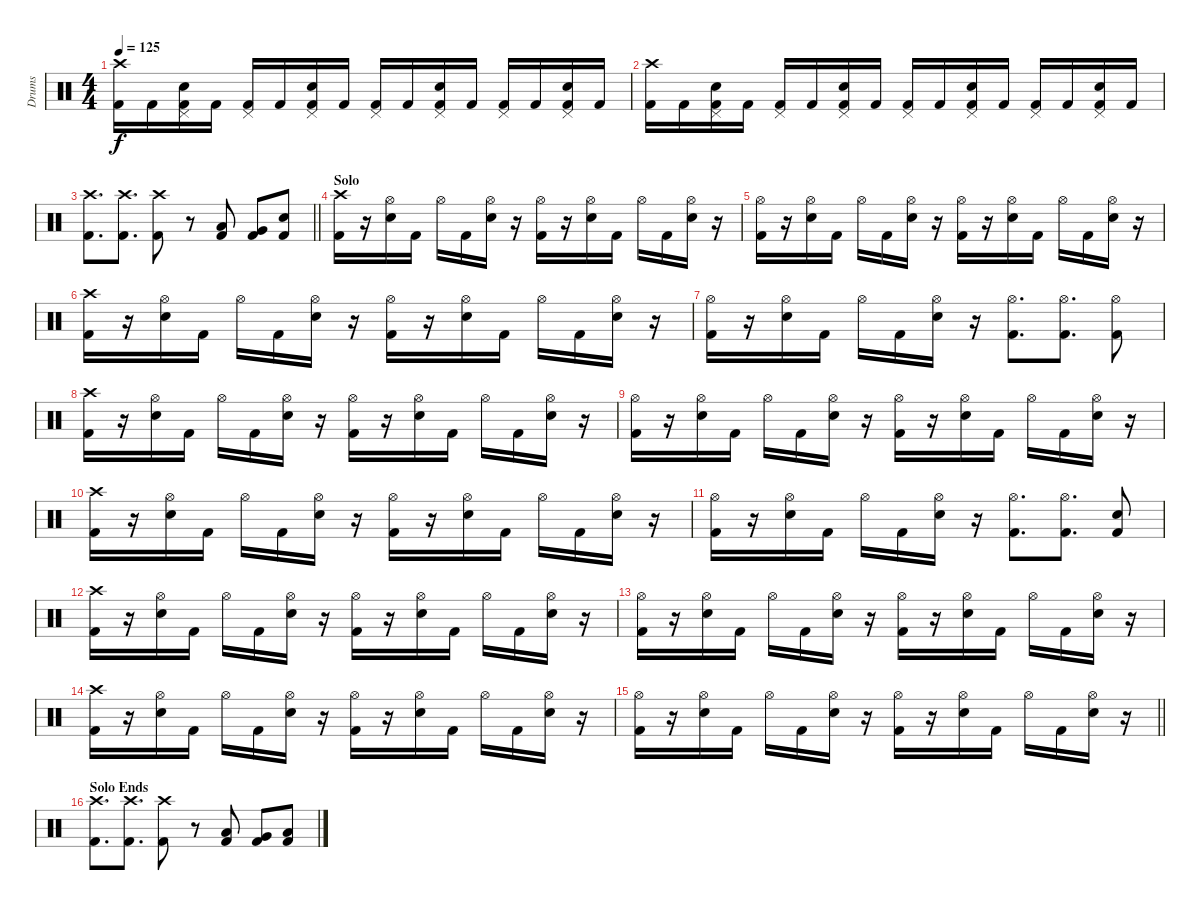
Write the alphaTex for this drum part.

\track ("Drums" "Drums") {instrument percussion}
\staff {score}
\articulation defaults
\ts (4 4)
\tempo 125
\clef neutral
\ks c
("Crash high (hit)" "Kick (hit) 2").16{dy f} "Kick (hit) 2".16 ("Pedal Hi-Hat (hit)" "Snare (hit) 2" "Kick (hit) 2").16 "Kick (hit) 2".16 ("Pedal Hi-Hat (hit)" "Kick (hit) 2").16 "Kick (hit) 2".16 ("Pedal Hi-Hat (hit)" "Snare (hit) 2" "Kick (hit) 2").16 "Kick (hit) 2".16 ("Pedal Hi-Hat (hit)" "Kick (hit) 2").16 "Kick (hit) 2".16 ("Pedal Hi-Hat (hit)" "Snare (hit) 2" "Kick (hit) 2").16 "Kick (hit) 2".16 ("Pedal Hi-Hat (hit)" "Kick (hit) 2").16 "Kick (hit) 2".16 ("Pedal Hi-Hat (hit)" "Snare (hit) 2" "Kick (hit) 2").16 "Kick (hit) 2".16 |
("Crash high (hit)" "Kick (hit) 2").16 "Kick (hit) 2".16 ("Pedal Hi-Hat (hit)" "Snare (hit) 2" "Kick (hit) 2").16 "Kick (hit) 2".16 ("Pedal Hi-Hat (hit)" "Kick (hit) 2").16 "Kick (hit) 2".16 ("Pedal Hi-Hat (hit)" "Snare (hit) 2" "Kick (hit) 2").16 "Kick (hit) 2".16 ("Pedal Hi-Hat (hit)" "Kick (hit) 2").16 "Kick (hit) 2".16 ("Pedal Hi-Hat (hit)" "Snare (hit) 2" "Kick (hit) 2").16 "Kick (hit) 2".16 ("Pedal Hi-Hat (hit)" "Kick (hit) 2").16 "Kick (hit) 2".16 ("Pedal Hi-Hat (hit)" "Snare (hit) 2" "Kick (hit) 2").16 "Kick (hit) 2".16 |
\barLineRight lightlight
("Crash high (hit)" "Kick (hit) 2").8{d} ("Crash high (hit)" "Kick (hit) 2").8{d} ("Crash high (hit)" "Kick (hit) 2").8 r.8 ("Low Tom (hit)" "Kick (hit) 2").8 ("Very Low Tom (hit)" "Kick (hit) 2").8 ("Snare (hit) 2" "Kick (hit) 2").8 |
\section ("" "Solo")
("Crash high (hit)" "Kick (hit) 2").16 r.16 ("Hi-Hat (open)" "Snare (hit) 2").16 "Kick (hit) 2".16 "Hi-Hat (open)".16 "Kick (hit) 2".16 ("Hi-Hat (open)" "Snare (hit) 2").16 r.16 ("Hi-Hat (open)" "Kick (hit) 2").16 r.16 ("Hi-Hat (open)" "Snare (hit) 2").16 "Kick (hit) 2".16 "Hi-Hat (open)".16 "Kick (hit) 2".16 ("Hi-Hat (open)" "Snare (hit) 2").16 r.16 |
("Hi-Hat (open)" "Kick (hit) 2").16 r.16 ("Hi-Hat (open)" "Snare (hit) 2").16 "Kick (hit) 2".16 "Hi-Hat (open)".16 "Kick (hit) 2".16 ("Hi-Hat (open)" "Snare (hit) 2").16 r.16 ("Hi-Hat (open)" "Kick (hit) 2").16 r.16 ("Hi-Hat (open)" "Snare (hit) 2").16 "Kick (hit) 2".16 "Hi-Hat (open)".16 "Kick (hit) 2".16 ("Hi-Hat (open)" "Snare (hit) 2").16 r.16 |
("Crash high (hit)" "Kick (hit) 2").16 r.16 ("Hi-Hat (open)" "Snare (hit) 2").16 "Kick (hit) 2".16 "Hi-Hat (open)".16 "Kick (hit) 2".16 ("Hi-Hat (open)" "Snare (hit) 2").16 r.16 ("Hi-Hat (open)" "Kick (hit) 2").16 r.16 ("Hi-Hat (open)" "Snare (hit) 2").16 "Kick (hit) 2".16 "Hi-Hat (open)".16 "Kick (hit) 2".16 ("Hi-Hat (open)" "Snare (hit) 2").16 r.16 |
("Hi-Hat (open)" "Kick (hit) 2").16 r.16 ("Hi-Hat (open)" "Snare (hit) 2").16 "Kick (hit) 2".16 "Hi-Hat (open)".16 "Kick (hit) 2".16 ("Hi-Hat (open)" "Snare (hit) 2").16 r.16 ("Hi-Hat (open)" "Kick (hit) 2").8{d} ("Hi-Hat (open)" "Kick (hit) 2").8{d} ("Hi-Hat (open)" "Kick (hit) 2").8 |
("Crash high (hit)" "Kick (hit) 2").16 r.16 ("Hi-Hat (open)" "Snare (hit) 2").16 "Kick (hit) 2".16 "Hi-Hat (open)".16 "Kick (hit) 2".16 ("Hi-Hat (open)" "Snare (hit) 2").16 r.16 ("Hi-Hat (open)" "Kick (hit) 2").16 r.16 ("Hi-Hat (open)" "Snare (hit) 2").16 "Kick (hit) 2".16 "Hi-Hat (open)".16 "Kick (hit) 2".16 ("Hi-Hat (open)" "Snare (hit) 2").16 r.16 |
("Hi-Hat (open)" "Kick (hit) 2").16 r.16 ("Hi-Hat (open)" "Snare (hit) 2").16 "Kick (hit) 2".16 "Hi-Hat (open)".16 "Kick (hit) 2".16 ("Hi-Hat (open)" "Snare (hit) 2").16 r.16 ("Hi-Hat (open)" "Kick (hit) 2").16 r.16 ("Hi-Hat (open)" "Snare (hit) 2").16 "Kick (hit) 2".16 "Hi-Hat (open)".16 "Kick (hit) 2".16 ("Hi-Hat (open)" "Snare (hit) 2").16 r.16 |
("Crash high (hit)" "Kick (hit) 2").16 r.16 ("Hi-Hat (open)" "Snare (hit) 2").16 "Kick (hit) 2".16 "Hi-Hat (open)".16 "Kick (hit) 2".16 ("Hi-Hat (open)" "Snare (hit) 2").16 r.16 ("Hi-Hat (open)" "Kick (hit) 2").16 r.16 ("Hi-Hat (open)" "Snare (hit) 2").16 "Kick (hit) 2".16 "Hi-Hat (open)".16 "Kick (hit) 2".16 ("Hi-Hat (open)" "Snare (hit) 2").16 r.16 |
("Hi-Hat (open)" "Kick (hit) 2").16 r.16 ("Hi-Hat (open)" "Snare (hit) 2").16 "Kick (hit) 2".16 "Hi-Hat (open)".16 "Kick (hit) 2".16 ("Hi-Hat (open)" "Snare (hit) 2").16 r.16 ("Hi-Hat (open)" "Kick (hit) 2").8{d} ("Hi-Hat (open)" "Kick (hit) 2").8{d} ("Snare (hit) 2" "Kick (hit) 2").8 |
("Crash high (hit)" "Kick (hit) 2").16 r.16 ("Hi-Hat (open)" "Snare (hit) 2").16 "Kick (hit) 2".16 "Hi-Hat (open)".16 "Kick (hit) 2".16 ("Hi-Hat (open)" "Snare (hit) 2").16 r.16 ("Hi-Hat (open)" "Kick (hit) 2").16 r.16 ("Hi-Hat (open)" "Snare (hit) 2").16 "Kick (hit) 2".16 "Hi-Hat (open)".16 "Kick (hit) 2".16 ("Hi-Hat (open)" "Snare (hit) 2").16 r.16 |
("Hi-Hat (open)" "Kick (hit) 2").16 r.16 ("Hi-Hat (open)" "Snare (hit) 2").16 "Kick (hit) 2".16 "Hi-Hat (open)".16 "Kick (hit) 2".16 ("Hi-Hat (open)" "Snare (hit) 2").16 r.16 ("Hi-Hat (open)" "Kick (hit) 2").16 r.16 ("Hi-Hat (open)" "Snare (hit) 2").16 "Kick (hit) 2".16 "Hi-Hat (open)".16 "Kick (hit) 2".16 ("Hi-Hat (open)" "Snare (hit) 2").16 r.16 |
("Crash high (hit)" "Kick (hit) 2").16 r.16 ("Hi-Hat (open)" "Snare (hit) 2").16 "Kick (hit) 2".16 "Hi-Hat (open)".16 "Kick (hit) 2".16 ("Hi-Hat (open)" "Snare (hit) 2").16 r.16 ("Hi-Hat (open)" "Kick (hit) 2").16 r.16 ("Hi-Hat (open)" "Snare (hit) 2").16 "Kick (hit) 2".16 "Hi-Hat (open)".16 "Kick (hit) 2".16 ("Hi-Hat (open)" "Snare (hit) 2").16 r.16 |
\barLineRight lightlight
("Hi-Hat (open)" "Kick (hit) 2").16 r.16 ("Hi-Hat (open)" "Snare (hit) 2").16 "Kick (hit) 2".16 "Hi-Hat (open)".16 "Kick (hit) 2".16 ("Hi-Hat (open)" "Snare (hit) 2").16 r.16 ("Hi-Hat (open)" "Kick (hit) 2").16 r.16 ("Hi-Hat (open)" "Snare (hit) 2").16 "Kick (hit) 2".16 "Hi-Hat (open)".16 "Kick (hit) 2".16 ("Hi-Hat (open)" "Snare (hit) 2").16 r.16 |
\section ("" "Solo Ends")
("Crash high (hit)" "Kick (hit) 2").8{d} ("Crash high (hit)" "Kick (hit) 2").8{d} ("Crash high (hit)" "Kick (hit) 2").8 r.8 ("Low Tom (hit)" "Kick (hit) 2").8 ("Very Low Tom (hit)" "Kick (hit) 2").8 ("Low Tom (hit)" "Kick (hit) 2").8
